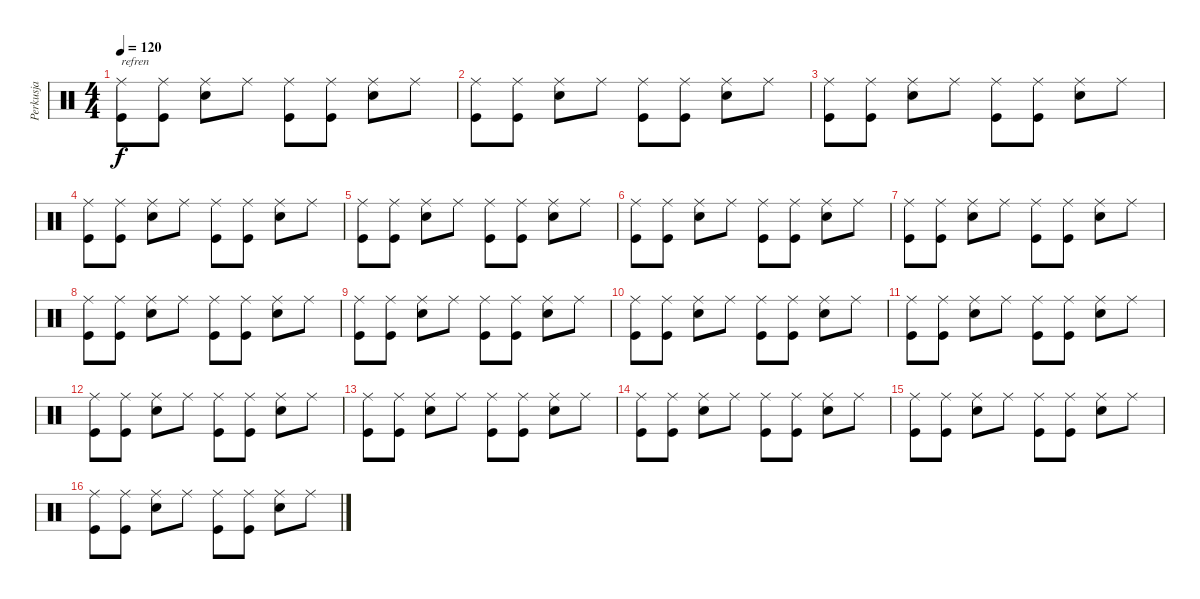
\track ("Perkusja" "Perkusja") {instrument percussion}
\staff {score}
\articulation defaults
\ts (4 4)
\tempo 120
\clef neutral
\ks c
("Ride (middle)" "Kick (hit)").8{txt "refren" dy f} ("Ride (middle)" "Kick (hit)").8 ("Ride (middle)" "Electric Snare (hit)").8 "Ride (middle)".8 ("Ride (middle)" "Kick (hit)").8 ("Ride (middle)" "Kick (hit)").8 ("Ride (middle)" "Electric Snare (hit)").8 "Ride (middle)".8 |
("Ride (middle)" "Kick (hit)").8 ("Ride (middle)" "Kick (hit)").8 ("Ride (middle)" "Electric Snare (hit)").8 "Ride (middle)".8 ("Ride (middle)" "Kick (hit)").8 ("Ride (middle)" "Kick (hit)").8 ("Ride (middle)" "Electric Snare (hit)").8 "Ride (middle)".8 |
("Ride (middle)" "Kick (hit)").8 ("Ride (middle)" "Kick (hit)").8 ("Ride (middle)" "Electric Snare (hit)").8 "Ride (middle)".8 ("Ride (middle)" "Kick (hit)").8 ("Ride (middle)" "Kick (hit)").8 ("Ride (middle)" "Electric Snare (hit)").8 "Ride (middle)".8 |
("Ride (middle)" "Kick (hit)").8 ("Ride (middle)" "Kick (hit)").8 ("Ride (middle)" "Electric Snare (hit)").8 "Ride (middle)".8 ("Ride (middle)" "Kick (hit)").8 ("Ride (middle)" "Kick (hit)").8 ("Ride (middle)" "Electric Snare (hit)").8 "Ride (middle)".8 |
("Ride (middle)" "Kick (hit)").8 ("Ride (middle)" "Kick (hit)").8 ("Ride (middle)" "Electric Snare (hit)").8 "Ride (middle)".8 ("Ride (middle)" "Kick (hit)").8 ("Ride (middle)" "Kick (hit)").8 ("Ride (middle)" "Electric Snare (hit)").8 "Ride (middle)".8 |
("Ride (middle)" "Kick (hit)").8 ("Ride (middle)" "Kick (hit)").8 ("Ride (middle)" "Electric Snare (hit)").8 "Ride (middle)".8 ("Ride (middle)" "Kick (hit)").8 ("Ride (middle)" "Kick (hit)").8 ("Ride (middle)" "Electric Snare (hit)").8 "Ride (middle)".8 |
("Ride (middle)" "Kick (hit)").8 ("Ride (middle)" "Kick (hit)").8 ("Ride (middle)" "Electric Snare (hit)").8 "Ride (middle)".8 ("Ride (middle)" "Kick (hit)").8 ("Ride (middle)" "Kick (hit)").8 ("Ride (middle)" "Electric Snare (hit)").8 "Ride (middle)".8 |
("Ride (middle)" "Kick (hit)").8 ("Ride (middle)" "Kick (hit)").8 ("Ride (middle)" "Electric Snare (hit)").8 "Ride (middle)".8 ("Ride (middle)" "Kick (hit)").8 ("Ride (middle)" "Kick (hit)").8 ("Ride (middle)" "Electric Snare (hit)").8 "Ride (middle)".8 |
("Ride (middle)" "Kick (hit)").8 ("Ride (middle)" "Kick (hit)").8 ("Ride (middle)" "Electric Snare (hit)").8 "Ride (middle)".8 ("Ride (middle)" "Kick (hit)").8 ("Ride (middle)" "Kick (hit)").8 ("Ride (middle)" "Electric Snare (hit)").8 "Ride (middle)".8 |
("Ride (middle)" "Kick (hit)").8 ("Ride (middle)" "Kick (hit)").8 ("Ride (middle)" "Electric Snare (hit)").8 "Ride (middle)".8 ("Ride (middle)" "Kick (hit)").8 ("Ride (middle)" "Kick (hit)").8 ("Ride (middle)" "Electric Snare (hit)").8 "Ride (middle)".8 |
("Ride (middle)" "Kick (hit)").8 ("Ride (middle)" "Kick (hit)").8 ("Ride (middle)" "Electric Snare (hit)").8 "Ride (middle)".8 ("Ride (middle)" "Kick (hit)").8 ("Ride (middle)" "Kick (hit)").8 ("Ride (middle)" "Electric Snare (hit)").8 "Ride (middle)".8 |
("Ride (middle)" "Kick (hit)").8 ("Ride (middle)" "Kick (hit)").8 ("Ride (middle)" "Electric Snare (hit)").8 "Ride (middle)".8 ("Ride (middle)" "Kick (hit)").8 ("Ride (middle)" "Kick (hit)").8 ("Ride (middle)" "Electric Snare (hit)").8 "Ride (middle)".8 |
("Ride (middle)" "Kick (hit)").8 ("Ride (middle)" "Kick (hit)").8 ("Ride (middle)" "Electric Snare (hit)").8 "Ride (middle)".8 ("Ride (middle)" "Kick (hit)").8 ("Ride (middle)" "Kick (hit)").8 ("Ride (middle)" "Electric Snare (hit)").8 "Ride (middle)".8 |
("Ride (middle)" "Kick (hit)").8 ("Ride (middle)" "Kick (hit)").8 ("Ride (middle)" "Electric Snare (hit)").8 "Ride (middle)".8 ("Ride (middle)" "Kick (hit)").8 ("Ride (middle)" "Kick (hit)").8 ("Ride (middle)" "Electric Snare (hit)").8 "Ride (middle)".8 |
("Ride (middle)" "Kick (hit)").8 ("Ride (middle)" "Kick (hit)").8 ("Ride (middle)" "Electric Snare (hit)").8 "Ride (middle)".8 ("Ride (middle)" "Kick (hit)").8 ("Ride (middle)" "Kick (hit)").8 ("Ride (middle)" "Electric Snare (hit)").8 "Ride (middle)".8 |
("Ride (middle)" "Kick (hit)").8 ("Ride (middle)" "Kick (hit)").8 ("Ride (middle)" "Electric Snare (hit)").8 "Ride (middle)".8 ("Ride (middle)" "Kick (hit)").8 ("Ride (middle)" "Kick (hit)").8 ("Ride (middle)" "Electric Snare (hit)").8 "Ride (middle)".8
